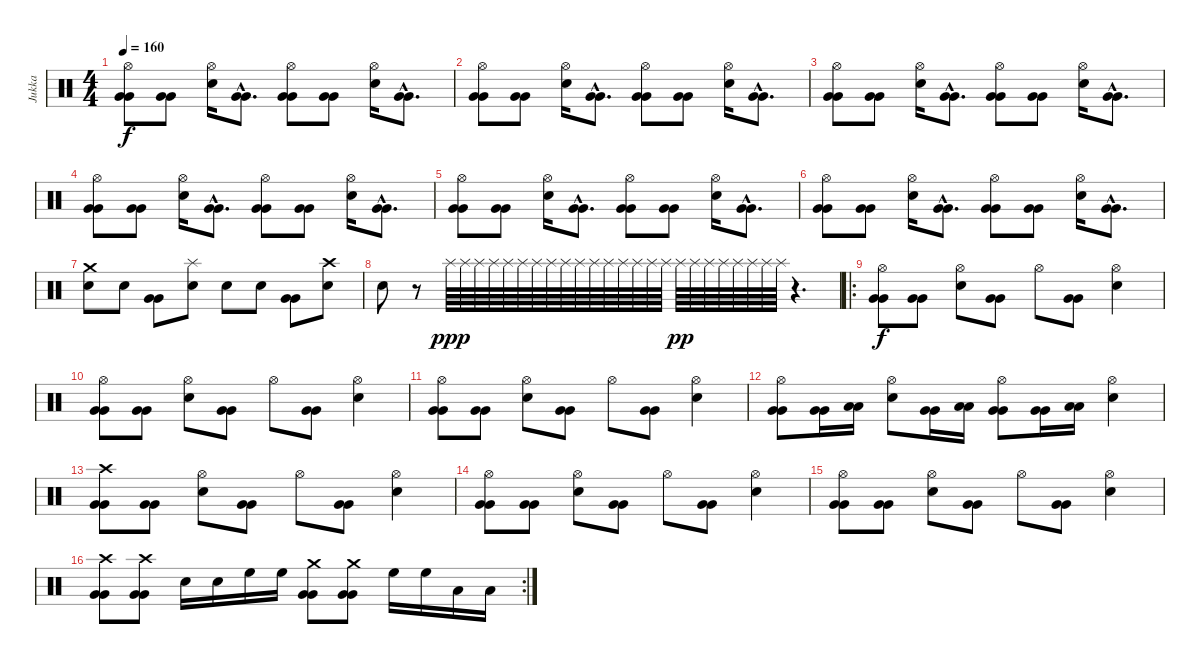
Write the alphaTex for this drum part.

\track ("Jukka" "Jukka") {instrument percussion}
\staff {score}
\articulation defaults
\ts (4 4)
\tempo 160
\clef neutral
\ks c
("Hi-Hat (open)" "Very Low Tom (hit)" "Very Low Tom (hit)").8{dy f} ("Very Low Tom (hit)" "Very Low Tom (hit)").8 ("Electric Snare (hit)" "Hi-Hat (open)").16 ("Very Low Tom (hit)"{hac} "Very Low Tom (hit)"{hac}).8{d} ("Hi-Hat (open)" "Very Low Tom (hit)" "Very Low Tom (hit)").8 ("Very Low Tom (hit)" "Very Low Tom (hit)").8 ("Electric Snare (hit)" "Hi-Hat (open)").16 ("Very Low Tom (hit)"{hac} "Very Low Tom (hit)"{hac}).8{d} |
("Hi-Hat (open)" "Very Low Tom (hit)" "Very Low Tom (hit)").8 ("Very Low Tom (hit)" "Very Low Tom (hit)").8 ("Electric Snare (hit)" "Hi-Hat (open)").16 ("Very Low Tom (hit)"{hac} "Very Low Tom (hit)"{hac}).8{d} ("Hi-Hat (open)" "Very Low Tom (hit)" "Very Low Tom (hit)").8 ("Very Low Tom (hit)" "Very Low Tom (hit)").8 ("Electric Snare (hit)" "Hi-Hat (open)").16 ("Very Low Tom (hit)"{hac} "Very Low Tom (hit)"{hac}).8{d} |
("Hi-Hat (open)" "Very Low Tom (hit)" "Very Low Tom (hit)").8 ("Very Low Tom (hit)" "Very Low Tom (hit)").8 ("Electric Snare (hit)" "Hi-Hat (open)").16 ("Very Low Tom (hit)"{hac} "Very Low Tom (hit)"{hac}).8{d} ("Hi-Hat (open)" "Very Low Tom (hit)" "Very Low Tom (hit)").8 ("Very Low Tom (hit)" "Very Low Tom (hit)").8 ("Electric Snare (hit)" "Hi-Hat (open)").16 ("Very Low Tom (hit)"{hac} "Very Low Tom (hit)"{hac}).8{d} |
("Hi-Hat (open)" "Very Low Tom (hit)" "Very Low Tom (hit)").8 ("Very Low Tom (hit)" "Very Low Tom (hit)").8 ("Electric Snare (hit)" "Hi-Hat (open)").16 ("Very Low Tom (hit)"{hac} "Very Low Tom (hit)"{hac}).8{d} ("Hi-Hat (open)" "Very Low Tom (hit)" "Very Low Tom (hit)").8 ("Very Low Tom (hit)" "Very Low Tom (hit)").8 ("Electric Snare (hit)" "Hi-Hat (open)").16 ("Very Low Tom (hit)"{hac} "Very Low Tom (hit)"{hac}).8{d} |
("Hi-Hat (open)" "Very Low Tom (hit)" "Very Low Tom (hit)").8 ("Very Low Tom (hit)" "Very Low Tom (hit)").8 ("Electric Snare (hit)" "Hi-Hat (open)").16 ("Very Low Tom (hit)"{hac} "Very Low Tom (hit)"{hac}).8{d} ("Hi-Hat (open)" "Very Low Tom (hit)" "Very Low Tom (hit)").8 ("Very Low Tom (hit)" "Very Low Tom (hit)").8 ("Electric Snare (hit)" "Hi-Hat (open)").16 ("Very Low Tom (hit)"{hac} "Very Low Tom (hit)"{hac}).8{d} |
("Hi-Hat (open)" "Very Low Tom (hit)" "Very Low Tom (hit)").8 ("Very Low Tom (hit)" "Very Low Tom (hit)").8 ("Electric Snare (hit)" "Hi-Hat (open)").16 ("Very Low Tom (hit)"{hac} "Very Low Tom (hit)"{hac}).8{d} ("Hi-Hat (open)" "Very Low Tom (hit)" "Very Low Tom (hit)").8 ("Very Low Tom (hit)" "Very Low Tom (hit)").8 ("Electric Snare (hit)" "Hi-Hat (open)").16 ("Very Low Tom (hit)"{hac} "Very Low Tom (hit)"{hac}).8{d} |
("Electric Snare (hit)" "Crash medium (hit)").8 "Electric Snare (hit)".8 ("Very Low Tom (hit)" "Very Low Tom (hit)").8 ("Electric Snare (hit)" "Splash (hit)").8 "Electric Snare (hit)".8 "Electric Snare (hit)".8 ("Very Low Tom (hit)" "Very Low Tom (hit)").8 ("Electric Snare (hit)" "Crash high (hit)").8 |
"Electric Snare (hit)".8 r.8 "Splash (hit)".64{dy ppp} "Splash (hit)".64 "Splash (hit)".64 "Splash (hit)".64 "Splash (hit)".64 "Splash (hit)".64 "Splash (hit)".64 "Splash (hit)".64 "Splash (hit)".64 "Splash (hit)".64 "Splash (hit)".64 "Splash (hit)".64 "Splash (hit)".64 "Splash (hit)".64 "Splash (hit)".64 "Splash (hit)".64 "Splash (hit)".64{dy pp} "Splash (hit)".64 "Splash (hit)".64 "Splash (hit)".64 "Splash (hit)".64 "Splash (hit)".64 "Splash (hit)".64 "Splash (hit)".64 r.4{d} |
\ro
("Hi-Hat (open)" "Very Low Tom (hit)" "Very Low Tom (hit)").8{dy f} ("Very Low Tom (hit)" "Very Low Tom (hit)").8 ("Electric Snare (hit)" "Hi-Hat (open)").8 ("Very Low Tom (hit)" "Very Low Tom (hit)").8 "Hi-Hat (open)".8 ("Very Low Tom (hit)" "Very Low Tom (hit)").8 ("Electric Snare (hit)" "Hi-Hat (open)").4 |
("Hi-Hat (open)" "Very Low Tom (hit)" "Very Low Tom (hit)").8 ("Very Low Tom (hit)" "Very Low Tom (hit)").8 ("Electric Snare (hit)" "Hi-Hat (open)").8 ("Very Low Tom (hit)" "Very Low Tom (hit)").8 "Hi-Hat (open)".8 ("Very Low Tom (hit)" "Very Low Tom (hit)").8 ("Electric Snare (hit)" "Hi-Hat (open)").4 |
("Hi-Hat (open)" "Very Low Tom (hit)" "Very Low Tom (hit)").8 ("Very Low Tom (hit)" "Very Low Tom (hit)").8 ("Electric Snare (hit)" "Hi-Hat (open)").8 ("Very Low Tom (hit)" "Very Low Tom (hit)").8 "Hi-Hat (open)".8 ("Very Low Tom (hit)" "Very Low Tom (hit)").8 ("Electric Snare (hit)" "Hi-Hat (open)").4 |
("Hi-Hat (open)" "Very Low Tom (hit)" "Very Low Tom (hit)").8 ("Very Low Tom (hit)" "Very Low Tom (hit)").16 ("Low Floor Tom (hit)" "Low Floor Tom (hit)").16 ("Electric Snare (hit)" "Hi-Hat (open)").8 ("Very Low Tom (hit)" "Very Low Tom (hit)").16 ("Low Floor Tom (hit)" "Low Floor Tom (hit)").16 ("Hi-Hat (open)" "Very Low Tom (hit)" "Very Low Tom (hit)").8 ("Very Low Tom (hit)" "Very Low Tom (hit)").16 ("Low Floor Tom (hit)" "Low Floor Tom (hit)").16 ("Electric Snare (hit)" "Hi-Hat (open)").4 |
("Crash high (hit)" "Very Low Tom (hit)" "Very Low Tom (hit)").8 ("Very Low Tom (hit)" "Very Low Tom (hit)").8 ("Electric Snare (hit)" "Hi-Hat (open)").8 ("Very Low Tom (hit)" "Very Low Tom (hit)").8 "Hi-Hat (open)".8 ("Very Low Tom (hit)" "Very Low Tom (hit)").8 ("Electric Snare (hit)" "Hi-Hat (open)").4 |
("Hi-Hat (open)" "Very Low Tom (hit)" "Very Low Tom (hit)").8 ("Very Low Tom (hit)" "Very Low Tom (hit)").8 ("Electric Snare (hit)" "Hi-Hat (open)").8 ("Very Low Tom (hit)" "Very Low Tom (hit)").8 "Hi-Hat (open)".8 ("Very Low Tom (hit)" "Very Low Tom (hit)").8 ("Electric Snare (hit)" "Hi-Hat (open)").4 |
("Hi-Hat (open)" "Very Low Tom (hit)" "Very Low Tom (hit)").8 ("Very Low Tom (hit)" "Very Low Tom (hit)").8 ("Electric Snare (hit)" "Hi-Hat (open)").8 ("Very Low Tom (hit)" "Very Low Tom (hit)").8 "Hi-Hat (open)".8 ("Very Low Tom (hit)" "Very Low Tom (hit)").8 ("Electric Snare (hit)" "Hi-Hat (open)").4 |
\rc 2
("Crash high (hit)" "Very Low Tom (hit)" "Very Low Tom (hit)").8 ("Crash high (hit)" "Very Low Tom (hit)" "Very Low Tom (hit)").8 "Electric Snare (hit)".16 "Electric Snare (hit)".16 "High Floor Tom (hit)".16 "High Floor Tom (hit)".16 ("Crash medium (hit)" "Very Low Tom (hit)" "Very Low Tom (hit)").8 ("Crash medium (hit)" "Very Low Tom (hit)" "Very Low Tom (hit)").8 "High Floor Tom (hit)".16 "High Floor Tom (hit)".16 "Low Tom (hit)".16 "Low Tom (hit)".16
